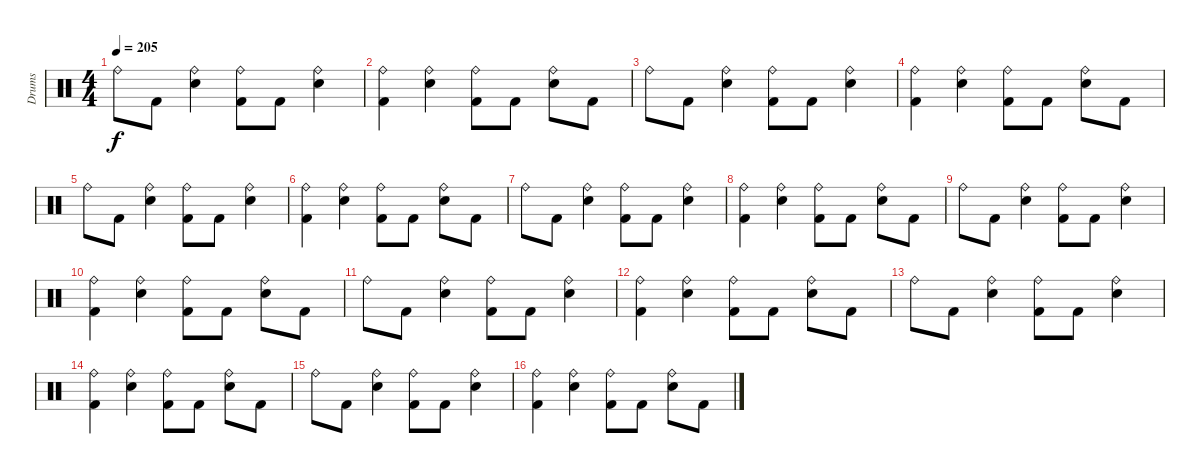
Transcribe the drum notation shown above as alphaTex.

\track ("Drums" "Drums") {instrument percussion}
\staff {score}
\articulation defaults
\ts (4 4)
\tempo 205
\clef neutral
\ks c "Ride (bell)".8{dy f} "Kick (hit) 2".8
("Ride (bell)" "Snare (hit) 2").4 ("Ride (bell)" "Kick (hit) 2").8 "Kick (hit) 2".8 ("Ride (bell)" "Snare (hit) 2").4 |
("Ride (bell)" "Kick (hit) 2").4 ("Ride (bell)" "Snare (hit) 2").4 ("Ride (bell)" "Kick (hit) 2").8 "Kick (hit) 2".8 ("Ride (bell)" "Snare (hit) 2").8 "Kick (hit) 2".8 |
"Ride (bell)".8 "Kick (hit) 2".8 ("Ride (bell)" "Snare (hit) 2").4 ("Ride (bell)" "Kick (hit) 2").8 "Kick (hit) 2".8 ("Ride (bell)" "Snare (hit) 2").4 |
("Ride (bell)" "Kick (hit) 2").4 ("Ride (bell)" "Snare (hit) 2").4 ("Ride (bell)" "Kick (hit) 2").8 "Kick (hit) 2".8 ("Ride (bell)" "Snare (hit) 2").8 "Kick (hit) 2".8 |
"Ride (bell)".8 "Kick (hit) 2".8 ("Ride (bell)" "Snare (hit) 2").4 ("Ride (bell)" "Kick (hit) 2").8 "Kick (hit) 2".8 ("Ride (bell)" "Snare (hit) 2").4 |
("Ride (bell)" "Kick (hit) 2").4 ("Ride (bell)" "Snare (hit) 2").4 ("Ride (bell)" "Kick (hit) 2").8 "Kick (hit) 2".8 ("Ride (bell)" "Snare (hit) 2").8 "Kick (hit) 2".8 |
"Ride (bell)".8 "Kick (hit) 2".8 ("Ride (bell)" "Snare (hit) 2").4 ("Ride (bell)" "Kick (hit) 2").8 "Kick (hit) 2".8 ("Ride (bell)" "Snare (hit) 2").4 |
("Ride (bell)" "Kick (hit) 2").4 ("Ride (bell)" "Snare (hit) 2").4 ("Ride (bell)" "Kick (hit) 2").8 "Kick (hit) 2".8 ("Ride (bell)" "Snare (hit) 2").8 "Kick (hit) 2".8 |
"Ride (bell)".8 "Kick (hit) 2".8 ("Ride (bell)" "Snare (hit) 2").4 ("Ride (bell)" "Kick (hit) 2").8 "Kick (hit) 2".8 ("Ride (bell)" "Snare (hit) 2").4 |
("Ride (bell)" "Kick (hit) 2").4 ("Ride (bell)" "Snare (hit) 2").4 ("Ride (bell)" "Kick (hit) 2").8 "Kick (hit) 2".8 ("Ride (bell)" "Snare (hit) 2").8 "Kick (hit) 2".8 |
"Ride (bell)".8 "Kick (hit) 2".8 ("Ride (bell)" "Snare (hit) 2").4 ("Ride (bell)" "Kick (hit) 2").8 "Kick (hit) 2".8 ("Ride (bell)" "Snare (hit) 2").4 |
("Ride (bell)" "Kick (hit) 2").4 ("Ride (bell)" "Snare (hit) 2").4 ("Ride (bell)" "Kick (hit) 2").8 "Kick (hit) 2".8 ("Ride (bell)" "Snare (hit) 2").8 "Kick (hit) 2".8 |
"Ride (bell)".8 "Kick (hit) 2".8 ("Ride (bell)" "Snare (hit) 2").4 ("Ride (bell)" "Kick (hit) 2").8 "Kick (hit) 2".8 ("Ride (bell)" "Snare (hit) 2").4 |
("Ride (bell)" "Kick (hit) 2").4 ("Ride (bell)" "Snare (hit) 2").4 ("Ride (bell)" "Kick (hit) 2").8 "Kick (hit) 2".8 ("Ride (bell)" "Snare (hit) 2").8 "Kick (hit) 2".8 |
"Ride (bell)".8 "Kick (hit) 2".8 ("Ride (bell)" "Snare (hit) 2").4 ("Ride (bell)" "Kick (hit) 2").8 "Kick (hit) 2".8 ("Ride (bell)" "Snare (hit) 2").4 |
("Ride (bell)" "Kick (hit) 2").4 ("Ride (bell)" "Snare (hit) 2").4 ("Ride (bell)" "Kick (hit) 2").8 "Kick (hit) 2".8 ("Ride (bell)" "Snare (hit) 2").8 "Kick (hit) 2".8
